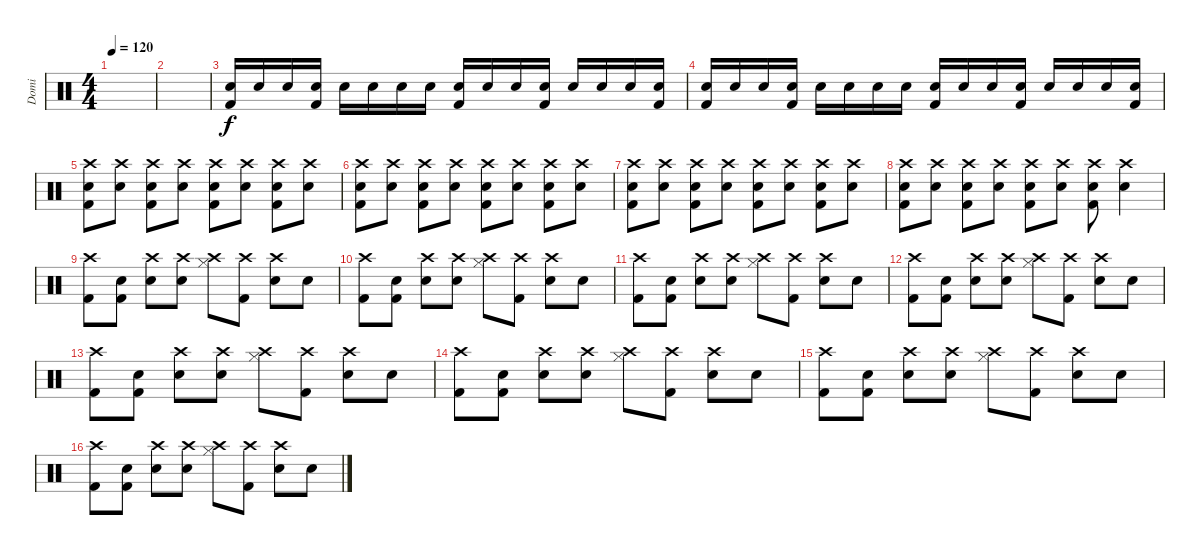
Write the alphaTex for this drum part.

\track ("Domi" "Domi") {instrument percussion}
\staff {score}
\articulation defaults
\ts (4 4)
\tempo 120
\clef neutral
\ks c
|
|
("Snare (hit) 2" "Kick (hit) 2").16 "Snare (hit) 2".16 "Snare (hit) 2".16 ("Snare (hit) 2" "Kick (hit) 2").16 "Snare (hit) 2".16 "Snare (hit) 2".16 "Snare (hit) 2".16 "Snare (hit) 2".16 ("Snare (hit) 2" "Kick (hit) 2").16 "Snare (hit) 2".16 "Snare (hit) 2".16 ("Snare (hit) 2" "Kick (hit) 2").16 "Snare (hit) 2".16 "Snare (hit) 2".16 "Snare (hit) 2".16 ("Snare (hit) 2" "Kick (hit) 2").16 |
("Snare (hit) 2" "Kick (hit) 2").16 "Snare (hit) 2".16 "Snare (hit) 2".16 ("Snare (hit) 2" "Kick (hit) 2").16 "Snare (hit) 2".16 "Snare (hit) 2".16 "Snare (hit) 2".16 "Snare (hit) 2".16 ("Snare (hit) 2" "Kick (hit) 2").16 "Snare (hit) 2".16 "Snare (hit) 2".16 ("Snare (hit) 2" "Kick (hit) 2").16 "Snare (hit) 2".16 "Snare (hit) 2".16 "Snare (hit) 2".16 ("Snare (hit) 2" "Kick (hit) 2").16 |
("Crash high (hit)" "Snare (hit) 2" "Kick (hit) 2").8 ("Crash high (hit)" "Snare (hit) 2").8 ("Crash high (hit)" "Snare (hit) 2" "Kick (hit) 2").8 ("Crash high (hit)" "Snare (hit) 2").8 ("Crash high (hit)" "Snare (hit) 2" "Kick (hit) 2").8 ("Crash high (hit)" "Snare (hit) 2").8 ("Crash high (hit)" "Snare (hit) 2" "Kick (hit) 2").8 ("Crash high (hit)" "Snare (hit) 2").8 |
("Crash high (hit)" "Snare (hit) 2" "Kick (hit) 2").8 ("Crash high (hit)" "Snare (hit) 2").8 ("Crash high (hit)" "Snare (hit) 2" "Kick (hit) 2").8 ("Crash high (hit)" "Snare (hit) 2").8 ("Crash high (hit)" "Snare (hit) 2" "Kick (hit) 2").8 ("Crash high (hit)" "Snare (hit) 2").8 ("Crash high (hit)" "Snare (hit) 2" "Kick (hit) 2").8 ("Crash high (hit)" "Snare (hit) 2").8 |
("Crash high (hit)" "Snare (hit) 2" "Kick (hit) 2").8 ("Crash high (hit)" "Snare (hit) 2").8 ("Crash high (hit)" "Snare (hit) 2" "Kick (hit) 2").8 ("Crash high (hit)" "Snare (hit) 2").8 ("Crash high (hit)" "Snare (hit) 2" "Kick (hit) 2").8 ("Crash high (hit)" "Snare (hit) 2").8 ("Crash high (hit)" "Snare (hit) 2" "Kick (hit) 2").8 ("Crash high (hit)" "Snare (hit) 2").8 |
("Crash high (hit)" "Snare (hit) 2" "Kick (hit) 2").8 ("Crash high (hit)" "Snare (hit) 2").8 ("Crash high (hit)" "Snare (hit) 2" "Kick (hit) 2").8 ("Crash high (hit)" "Snare (hit) 2").8 ("Crash high (hit)" "Snare (hit) 2" "Kick (hit) 2").8 ("Crash high (hit)" "Snare (hit) 2").8 ("Crash high (hit)" "Snare (hit) 2" "Kick (hit) 2").8 ("Crash high (hit)" "Snare (hit) 2").4 |
("Crash high (hit)" "Kick (hit) 2").8 ("Snare (hit) 2" "Kick (hit) 2").8 ("Crash high (hit)" "Snare (hit) 2").8 ("Crash high (hit)" "Snare (hit) 2").8 ("Crash high (hit)" "Hi-Hat (closed)").8 ("Crash high (hit)" "Kick (hit) 2").8 ("Crash high (hit)" "Snare (hit) 2").8 "Snare (hit) 2".8 |
("Crash high (hit)" "Kick (hit) 2").8 ("Snare (hit) 2" "Kick (hit) 2").8 ("Crash high (hit)" "Snare (hit) 2").8 ("Crash high (hit)" "Snare (hit) 2").8 ("Crash high (hit)" "Hi-Hat (closed)").8 ("Crash high (hit)" "Kick (hit) 2").8 ("Crash high (hit)" "Snare (hit) 2").8 "Snare (hit) 2".8 |
("Crash high (hit)" "Kick (hit) 2").8 ("Snare (hit) 2" "Kick (hit) 2").8 ("Crash high (hit)" "Snare (hit) 2").8 ("Crash high (hit)" "Snare (hit) 2").8 ("Crash high (hit)" "Hi-Hat (closed)").8 ("Crash high (hit)" "Kick (hit) 2").8 ("Crash high (hit)" "Snare (hit) 2").8 "Snare (hit) 2".8 |
("Crash high (hit)" "Kick (hit) 2").8 ("Snare (hit) 2" "Kick (hit) 2").8 ("Crash high (hit)" "Snare (hit) 2").8 ("Crash high (hit)" "Snare (hit) 2").8 ("Crash high (hit)" "Hi-Hat (closed)").8 ("Crash high (hit)" "Kick (hit) 2").8 ("Crash high (hit)" "Snare (hit) 2").8 "Snare (hit) 2".8 |
("Crash high (hit)" "Kick (hit) 2").8 ("Snare (hit) 2" "Kick (hit) 2").8 ("Crash high (hit)" "Snare (hit) 2").8 ("Crash high (hit)" "Snare (hit) 2").8 ("Crash high (hit)" "Hi-Hat (closed)").8 ("Crash high (hit)" "Kick (hit) 2").8 ("Crash high (hit)" "Snare (hit) 2").8 "Snare (hit) 2".8 |
("Crash high (hit)" "Kick (hit) 2").8 ("Snare (hit) 2" "Kick (hit) 2").8 ("Crash high (hit)" "Snare (hit) 2").8 ("Crash high (hit)" "Snare (hit) 2").8 ("Crash high (hit)" "Hi-Hat (closed)").8 ("Crash high (hit)" "Kick (hit) 2").8 ("Crash high (hit)" "Snare (hit) 2").8 "Snare (hit) 2".8 |
("Crash high (hit)" "Kick (hit) 2").8 ("Snare (hit) 2" "Kick (hit) 2").8 ("Crash high (hit)" "Snare (hit) 2").8 ("Crash high (hit)" "Snare (hit) 2").8 ("Crash high (hit)" "Hi-Hat (closed)").8 ("Crash high (hit)" "Kick (hit) 2").8 ("Crash high (hit)" "Snare (hit) 2").8 "Snare (hit) 2".8 |
("Crash high (hit)" "Kick (hit) 2").8 ("Snare (hit) 2" "Kick (hit) 2").8 ("Crash high (hit)" "Snare (hit) 2").8 ("Crash high (hit)" "Snare (hit) 2").8 ("Crash high (hit)" "Hi-Hat (closed)").8 ("Crash high (hit)" "Kick (hit) 2").8 ("Crash high (hit)" "Snare (hit) 2").8 "Snare (hit) 2".8
